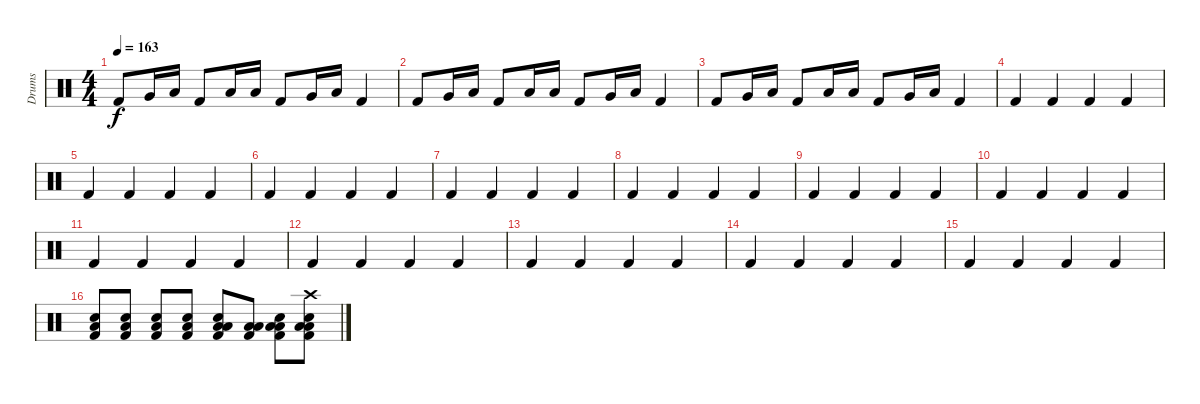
\track ("Drums" "Drums") {instrument percussion}
\staff {score}
\articulation defaults
\ts (4 4)
\tempo 163
\clef neutral
\ks c "Kick (hit) 2".8{dy f} "Very Low Tom (hit)".16 "Low Floor Tom (hit)".16 "Kick (hit) 2".8 "Low Tom (hit)".16 "Low Floor Tom (hit)".16 "Kick (hit) 2".8 "Very Low Tom (hit)".16 "Low Floor Tom (hit)".16 "Kick (hit) 2".4
|
"Kick (hit) 2".8 "Very Low Tom (hit)".16 "Low Floor Tom (hit)".16 "Kick (hit) 2".8 "Low Tom (hit)".16 "Low Floor Tom (hit)".16 "Kick (hit) 2".8 "Very Low Tom (hit)".16 "Low Floor Tom (hit)".16 "Kick (hit) 2".4 |
"Kick (hit) 2".8 "Very Low Tom (hit)".16 "Low Floor Tom (hit)".16 "Kick (hit) 2".8 "Low Tom (hit)".16 "Low Floor Tom (hit)".16 "Kick (hit) 2".8 "Very Low Tom (hit)".16 "Low Floor Tom (hit)".16 "Kick (hit) 2".4 |
"Kick (hit) 2".4 "Kick (hit) 2".4 "Kick (hit) 2".4 "Kick (hit) 2".4 |
"Kick (hit) 2".4 "Kick (hit) 2".4 "Kick (hit) 2".4 "Kick (hit) 2".4 |
"Kick (hit) 2".4 "Kick (hit) 2".4 "Kick (hit) 2".4 "Kick (hit) 2".4 |
"Kick (hit) 2".4 "Kick (hit) 2".4 "Kick (hit) 2".4 "Kick (hit) 2".4 |
"Kick (hit) 2".4 "Kick (hit) 2".4 "Kick (hit) 2".4 "Kick (hit) 2".4 |
"Kick (hit) 2".4 "Kick (hit) 2".4 "Kick (hit) 2".4 "Kick (hit) 2".4 |
"Kick (hit) 2".4 "Kick (hit) 2".4 "Kick (hit) 2".4 "Kick (hit) 2".4 |
"Kick (hit) 2".4 "Kick (hit) 2".4 "Kick (hit) 2".4 "Kick (hit) 2".4 |
"Kick (hit) 2".4 "Kick (hit) 2".4 "Kick (hit) 2".4 "Kick (hit) 2".4 |
"Kick (hit) 2".4 "Kick (hit) 2".4 "Kick (hit) 2".4 "Kick (hit) 2".4 |
"Kick (hit) 2".4 "Kick (hit) 2".4 "Kick (hit) 2".4 "Kick (hit) 2".4 |
"Kick (hit) 2".4 "Kick (hit) 2".4 "Kick (hit) 2".4 "Kick (hit) 2".4 |
("Snare (hit) 2" "Low Floor Tom (hit)" "Kick (hit) 2").8 ("Snare (hit) 2" "Low Floor Tom (hit)" "Kick (hit) 2").8 ("Snare (hit) 2" "Low Floor Tom (hit)" "Kick (hit) 2").8 ("Snare (hit) 2" "Low Floor Tom (hit)" "Kick (hit) 2").8 ("Snare (hit) 2" "Low Tom (hit)" "Low Floor Tom (hit)" "Kick (hit) 2").8 ("Low Tom (hit)" "Low Floor Tom (hit)" "Kick (hit) 2").8 ("Snare (hit) 2" "Low Tom (hit)" "Low Floor Tom (hit)" "Kick (hit) 2").8 ("Crash high (hit)" "Snare (hit) 2" "Low Tom (hit)" "Low Floor Tom (hit)" "Kick (hit) 2").8
